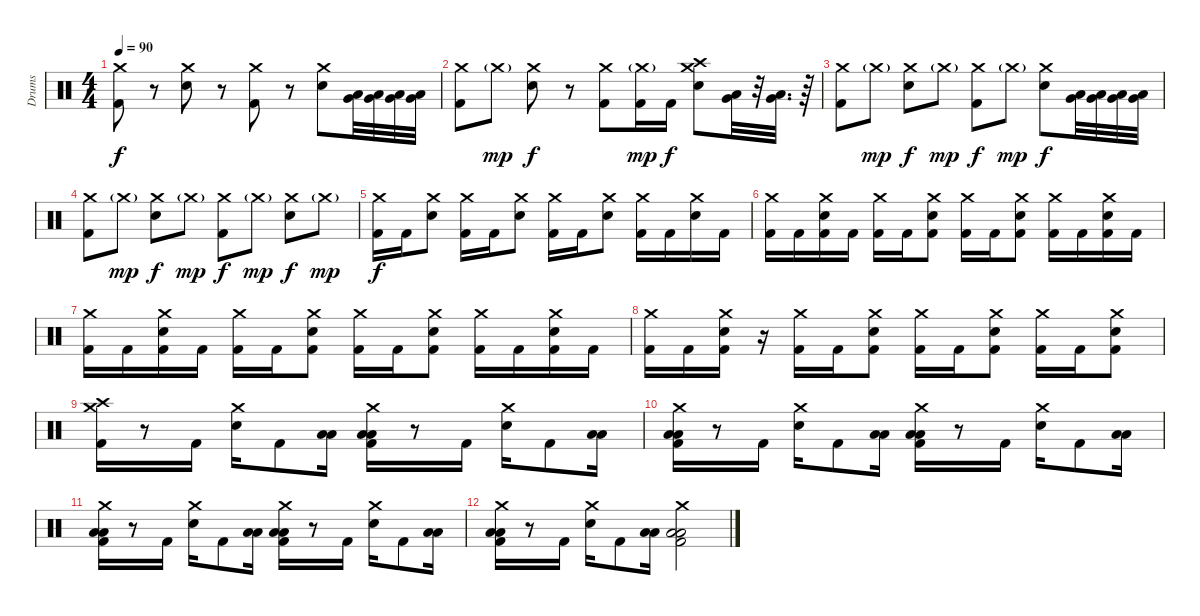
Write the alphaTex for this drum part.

\track ("Drums" "Drums") {instrument percussion}
\staff {score}
\articulation defaults
\ts (4 4)
\tempo 90
\clef neutral
\ks c
("Crash medium (hit)" "Kick (hit) 2").8{dy f} r.8 ("Crash medium (hit)" "Snare (hit) 2").8 r.8 ("Crash medium (hit)" "Kick (hit) 2").8 r.8 ("Crash medium (hit)" "Snare (hit) 2").8 ("Very Low Tom (hit)" "Low Floor Tom (hit)").32 ("Very Low Tom (hit)" "Low Floor Tom (hit)").32 ("Very Low Tom (hit)" "Low Floor Tom (hit)").32 ("Very Low Tom (hit)" "Low Floor Tom (hit)").32 |
("Crash medium (hit)" "Kick (hit) 2").8 "Crash medium (hit)"{g}.8{dy mp} ("Crash medium (hit)" "Snare (hit) 2").8{dy f} r.8 ("Crash medium (hit)" "Kick (hit) 2").8 ("Crash medium (hit)"{g} "Kick (hit) 2").16{dy mp} "Kick (hit) 2".16{dy f} ("Crash medium (hit)" "Crash high (hit)" "Snare (hit) 2").8 ("Very Low Tom (hit)" "Low Floor Tom (hit)").32 r.32 ("Very Low Tom (hit)" "Low Floor Tom (hit)").32{d} r.64 |
("Crash medium (hit)" "Kick (hit) 2").8 "Crash medium (hit)"{g}.8{dy mp} ("Crash medium (hit)" "Snare (hit) 2").8{dy f} "Crash medium (hit)"{g}.8{dy mp} ("Crash medium (hit)" "Kick (hit) 2").8{dy f} "Crash medium (hit)"{g}.8{dy mp} ("Crash medium (hit)" "Snare (hit) 2").8{dy f} ("Very Low Tom (hit)" "Low Floor Tom (hit)").32 ("Very Low Tom (hit)" "Low Floor Tom (hit)").32 ("Very Low Tom (hit)" "Low Floor Tom (hit)").32 ("Very Low Tom (hit)" "Low Floor Tom (hit)").32 |
("Crash medium (hit)" "Kick (hit) 2").8 "Crash medium (hit)"{g}.8{dy mp} ("Crash medium (hit)" "Snare (hit) 2").8{dy f} "Crash medium (hit)"{g}.8{dy mp} ("Crash medium (hit)" "Kick (hit) 2").8{dy f} "Crash medium (hit)"{g}.8{dy mp} ("Crash medium (hit)" "Snare (hit) 2").8{dy f} "Crash medium (hit)"{g}.8{dy mp} |
("Crash medium (hit)" "Kick (hit) 2").16{dy f} "Kick (hit) 2".16 ("Crash medium (hit)" "Snare (hit) 2").8 ("Crash medium (hit)" "Kick (hit) 2").16 "Kick (hit) 2".16 ("Crash medium (hit)" "Snare (hit) 2").8 ("Crash medium (hit)" "Kick (hit) 2").16 "Kick (hit) 2".16 ("Crash medium (hit)" "Snare (hit) 2").8 ("Crash medium (hit)" "Kick (hit) 2").16 "Kick (hit) 2".16 ("Crash medium (hit)" "Snare (hit) 2").16 "Kick (hit) 2".16 |
("Crash medium (hit)" "Kick (hit) 2").16 "Kick (hit) 2".16 ("Crash medium (hit)" "Snare (hit) 2" "Kick (hit) 2").16 "Kick (hit) 2".16 ("Crash medium (hit)" "Kick (hit) 2").16 "Kick (hit) 2".16 ("Crash medium (hit)" "Snare (hit) 2" "Kick (hit) 2").8 ("Crash medium (hit)" "Kick (hit) 2").16 "Kick (hit) 2".16 ("Crash medium (hit)" "Snare (hit) 2" "Kick (hit) 2").8 ("Crash medium (hit)" "Kick (hit) 2").16 "Kick (hit) 2".16 ("Crash medium (hit)" "Snare (hit) 2" "Kick (hit) 2").16 "Kick (hit) 2".16 |
("Crash medium (hit)" "Kick (hit) 2").16 "Kick (hit) 2".16 ("Crash medium (hit)" "Snare (hit) 2" "Kick (hit) 2").16 "Kick (hit) 2".16 ("Crash medium (hit)" "Kick (hit) 2").16 "Kick (hit) 2".16 ("Crash medium (hit)" "Snare (hit) 2" "Kick (hit) 2").8 ("Crash medium (hit)" "Kick (hit) 2").16 "Kick (hit) 2".16 ("Crash medium (hit)" "Snare (hit) 2" "Kick (hit) 2").8 ("Crash medium (hit)" "Kick (hit) 2").16 "Kick (hit) 2".16 ("Crash medium (hit)" "Snare (hit) 2" "Kick (hit) 2").16 "Kick (hit) 2".16 |
("Crash medium (hit)" "Kick (hit) 2").16 "Kick (hit) 2".16 ("Crash medium (hit)" "Snare (hit) 2" "Kick (hit) 2").16 r.16 ("Crash medium (hit)" "Kick (hit) 2").16 "Kick (hit) 2".16 ("Crash medium (hit)" "Snare (hit) 2" "Kick (hit) 2").8 ("Crash medium (hit)" "Kick (hit) 2").16 "Kick (hit) 2".16 ("Crash medium (hit)" "Snare (hit) 2" "Kick (hit) 2").8 ("Crash medium (hit)" "Kick (hit) 2").16 "Kick (hit) 2".16 ("Crash medium (hit)" "Snare (hit) 2" "Kick (hit) 2").8 |
("Crash medium (hit)" "Crash high (hit)" "Kick (hit) 2").16 r.8 "Kick (hit) 2".16 ("Crash medium (hit)" "Snare (hit) 2").16 "Kick (hit) 2".8 ("Low Floor Tom (hit)" "Low Floor Tom (hit)").16 ("Crash medium (hit)" "Low Floor Tom (hit)" "Low Floor Tom (hit)" "Kick (hit) 2").16 r.8 "Kick (hit) 2".16 ("Crash medium (hit)" "Snare (hit) 2").16 "Kick (hit) 2".8 ("Low Floor Tom (hit)" "Low Floor Tom (hit)").16 |
("Crash medium (hit)" "Low Floor Tom (hit)" "Low Floor Tom (hit)" "Kick (hit) 2").16 r.8 "Kick (hit) 2".16 ("Crash medium (hit)" "Snare (hit) 2").16 "Kick (hit) 2".8 ("Low Floor Tom (hit)" "Low Floor Tom (hit)").16 ("Crash medium (hit)" "Low Floor Tom (hit)" "Low Floor Tom (hit)" "Kick (hit) 2").16 r.8 "Kick (hit) 2".16 ("Crash medium (hit)" "Snare (hit) 2").16 "Kick (hit) 2".8 ("Low Floor Tom (hit)" "Low Floor Tom (hit)").16 |
("Crash medium (hit)" "Low Floor Tom (hit)" "Low Floor Tom (hit)" "Kick (hit) 2").16 r.8 "Kick (hit) 2".16 ("Crash medium (hit)" "Snare (hit) 2").16 "Kick (hit) 2".8 ("Low Floor Tom (hit)" "Low Floor Tom (hit)").16 ("Crash medium (hit)" "Low Floor Tom (hit)" "Low Floor Tom (hit)" "Kick (hit) 2").16 r.8 "Kick (hit) 2".16 ("Crash medium (hit)" "Snare (hit) 2").16 "Kick (hit) 2".8 ("Low Floor Tom (hit)" "Low Floor Tom (hit)").16 |
("Crash medium (hit)" "Low Floor Tom (hit)" "Low Floor Tom (hit)" "Kick (hit) 2").16 r.8 "Kick (hit) 2".16 ("Crash medium (hit)" "Snare (hit) 2").16 "Kick (hit) 2".8 ("Low Floor Tom (hit)" "Low Floor Tom (hit)").16 ("Crash medium (hit)" "Low Floor Tom (hit)" "Low Floor Tom (hit)" "Kick (hit) 2").2
